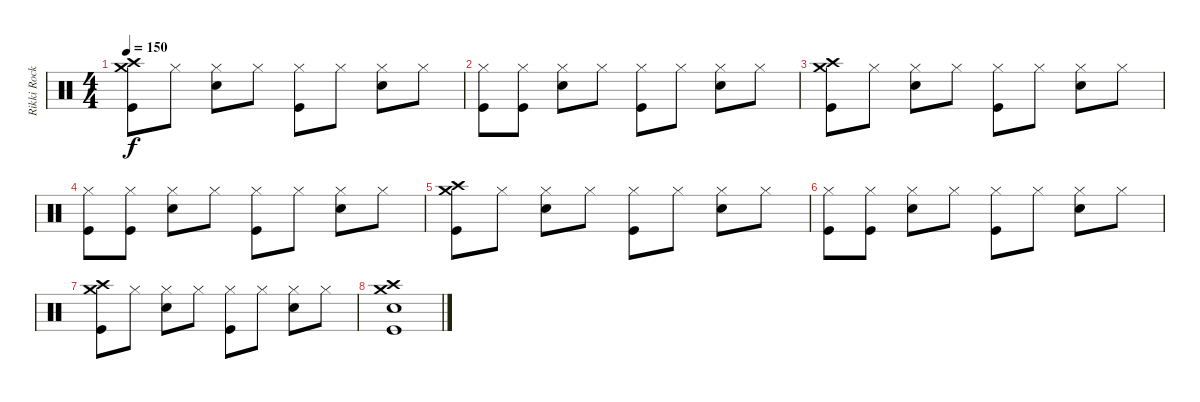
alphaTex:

\track ("Rikki Rocket" "Rikki Rock") {instrument percussion}
\staff {score}
\articulation defaults
\ts (4 4)
\tempo 150
\clef neutral
\ks c
("Crash medium (hit)" "Crash high (hit)" "Kick (hit)").8{dy f} "Hi-Hat (closed)".8 ("Hi-Hat (closed)" "Electric Snare (hit)").8 "Hi-Hat (closed)".8 ("Hi-Hat (closed)" "Kick (hit)").8 "Hi-Hat (closed)".8 ("Hi-Hat (closed)" "Electric Snare (hit)").8 "Hi-Hat (closed)".8 |
("Hi-Hat (closed)" "Kick (hit)").8 ("Hi-Hat (closed)" "Kick (hit)").8 ("Hi-Hat (closed)" "Electric Snare (hit)").8 "Hi-Hat (closed)".8 ("Hi-Hat (closed)" "Kick (hit)").8 "Hi-Hat (closed)".8 ("Hi-Hat (closed)" "Electric Snare (hit)").8 "Hi-Hat (closed)".8 |
("Crash medium (hit)" "Crash high (hit)" "Kick (hit)").8 "Hi-Hat (closed)".8 ("Hi-Hat (closed)" "Electric Snare (hit)").8 "Hi-Hat (closed)".8 ("Hi-Hat (closed)" "Kick (hit)").8 "Hi-Hat (closed)".8 ("Hi-Hat (closed)" "Electric Snare (hit)").8 "Hi-Hat (closed)".8 |
("Hi-Hat (closed)" "Kick (hit)").8 ("Hi-Hat (closed)" "Kick (hit)").8 ("Hi-Hat (closed)" "Electric Snare (hit)").8 "Hi-Hat (closed)".8 ("Hi-Hat (closed)" "Kick (hit)").8 "Hi-Hat (closed)".8 ("Hi-Hat (closed)" "Electric Snare (hit)").8 "Hi-Hat (closed)".8 |
("Crash medium (hit)" "Crash high (hit)" "Kick (hit)").8 "Hi-Hat (closed)".8 ("Hi-Hat (closed)" "Electric Snare (hit)").8 "Hi-Hat (closed)".8 ("Hi-Hat (closed)" "Kick (hit)").8 "Hi-Hat (closed)".8 ("Hi-Hat (closed)" "Electric Snare (hit)").8 "Hi-Hat (closed)".8 |
("Hi-Hat (closed)" "Kick (hit)").8 ("Hi-Hat (closed)" "Kick (hit)").8 ("Hi-Hat (closed)" "Electric Snare (hit)").8 "Hi-Hat (closed)".8 ("Hi-Hat (closed)" "Kick (hit)").8 "Hi-Hat (closed)".8 ("Hi-Hat (closed)" "Electric Snare (hit)").8 "Hi-Hat (closed)".8 |
("Crash medium (hit)" "Crash high (hit)" "Kick (hit)").8 "Hi-Hat (closed)".8 ("Hi-Hat (closed)" "Electric Snare (hit)").8 "Hi-Hat (closed)".8 ("Hi-Hat (closed)" "Kick (hit)").8 "Hi-Hat (closed)".8 ("Hi-Hat (closed)" "Electric Snare (hit)").8 "Hi-Hat (closed)".8 |
("Crash high (hit)" "Crash medium (hit)" "Electric Snare (hit)" "Kick (hit)").1
